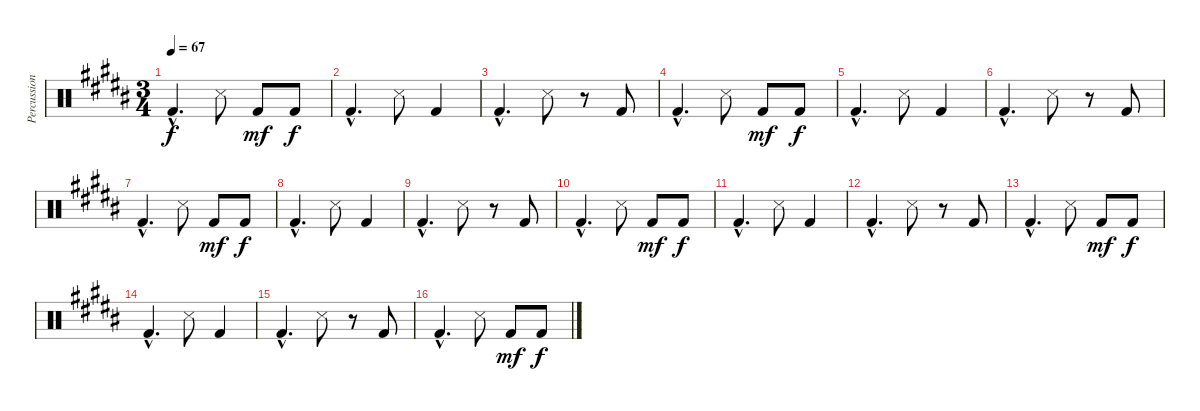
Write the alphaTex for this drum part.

\track ("Percussion" "Percussion") {instrument percussion}
\staff {score}
\articulation defaults
\ts (3 4)
\tempo 67
\clef neutral
\ks b "Kick (hit) 2"{hac}.4{d dy f} "Snare (side stick) 3".8 "Kick (hit) 2".8{dy mf} "Kick (hit) 2".8{dy f}
|
"Kick (hit) 2"{hac}.4{d} "Snare (side stick) 3".8 "Kick (hit) 2".4 |
"Kick (hit) 2"{hac}.4{d} "Snare (side stick) 3".8 r.8 "Kick (hit) 2".8 |
"Kick (hit) 2"{hac}.4{d} "Snare (side stick) 3".8 "Kick (hit) 2".8{dy mf} "Kick (hit) 2".8{dy f} |
"Kick (hit) 2"{hac}.4{d} "Snare (side stick) 3".8 "Kick (hit) 2".4 |
"Kick (hit) 2"{hac}.4{d} "Snare (side stick) 3".8 r.8 "Kick (hit) 2".8 |
"Kick (hit) 2"{hac}.4{d} "Snare (side stick) 3".8 "Kick (hit) 2".8{dy mf} "Kick (hit) 2".8{dy f} |
"Kick (hit) 2"{hac}.4{d} "Snare (side stick) 3".8 "Kick (hit) 2".4 |
"Kick (hit) 2"{hac}.4{d} "Snare (side stick) 3".8 r.8 "Kick (hit) 2".8 |
"Kick (hit) 2"{hac}.4{d} "Snare (side stick) 3".8 "Kick (hit) 2".8{dy mf} "Kick (hit) 2".8{dy f} |
"Kick (hit) 2"{hac}.4{d} "Snare (side stick) 3".8 "Kick (hit) 2".4 |
"Kick (hit) 2"{hac}.4{d} "Snare (side stick) 3".8 r.8 "Kick (hit) 2".8 |
"Kick (hit) 2"{hac}.4{d} "Snare (side stick) 3".8 "Kick (hit) 2".8{dy mf} "Kick (hit) 2".8{dy f} |
"Kick (hit) 2"{hac}.4{d} "Snare (side stick) 3".8 "Kick (hit) 2".4 |
"Kick (hit) 2"{hac}.4{d} "Snare (side stick) 3".8 r.8 "Kick (hit) 2".8 |
"Kick (hit) 2"{hac}.4{d} "Snare (side stick) 3".8 "Kick (hit) 2".8{dy mf} "Kick (hit) 2".8{dy f}
